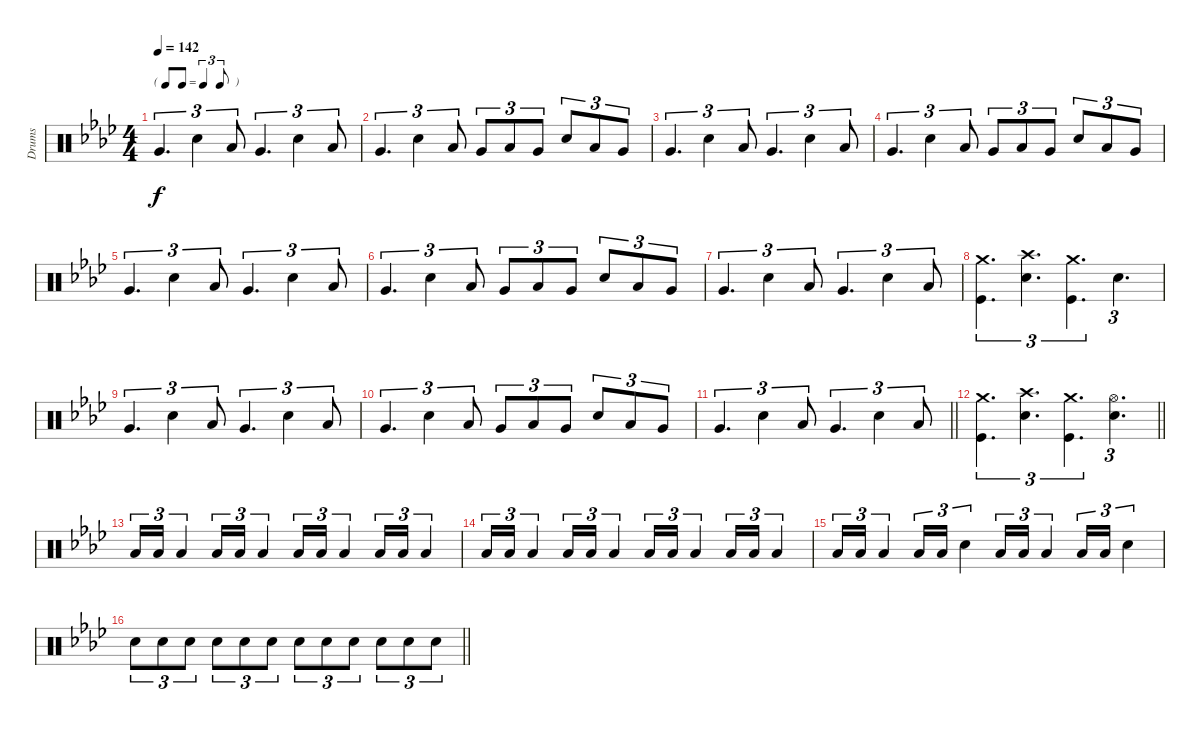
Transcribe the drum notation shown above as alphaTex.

\track ("Drums" "Drums") {instrument percussion}
\staff {score}
\articulation defaults
\ts (4 4)
\tf triplet8th
\tempo 142
\clef neutral
\ks ab "Very Low Tom (hit)".4{d tu (3 2) dy f} "Snare (hit) 2".4{tu (3 2)} "Low Floor Tom (hit)".8{tu (3 2)} "Very Low Tom (hit)".4{d tu (3 2)} "Snare (hit) 2".4{tu (3 2)} "Low Floor Tom (hit)".8{tu (3 2)}
|
"Very Low Tom (hit)".4{d tu (3 2)} "Snare (hit) 2".4{tu (3 2)} "Low Floor Tom (hit)".8{tu (3 2)} "Very Low Tom (hit)".8{tu (3 2)} "Low Floor Tom (hit)".8{tu (3 2)} "Very Low Tom (hit)".8{tu (3 2)} "Snare (hit) 2".8{tu (3 2)} "Low Floor Tom (hit)".8{tu (3 2)} "Very Low Tom (hit)".8{tu (3 2)} |
"Very Low Tom (hit)".4{d tu (3 2)} "Snare (hit) 2".4{tu (3 2)} "Low Floor Tom (hit)".8{tu (3 2)} "Very Low Tom (hit)".4{d tu (3 2)} "Snare (hit) 2".4{tu (3 2)} "Low Floor Tom (hit)".8{tu (3 2)} |
"Very Low Tom (hit)".4{d tu (3 2)} "Snare (hit) 2".4{tu (3 2)} "Low Floor Tom (hit)".8{tu (3 2)} "Very Low Tom (hit)".8{tu (3 2)} "Low Floor Tom (hit)".8{tu (3 2)} "Very Low Tom (hit)".8{tu (3 2)} "Snare (hit) 2".8{tu (3 2)} "Low Floor Tom (hit)".8{tu (3 2)} "Very Low Tom (hit)".8{tu (3 2)} |
"Very Low Tom (hit)".4{d tu (3 2)} "Snare (hit) 2".4{tu (3 2)} "Low Floor Tom (hit)".8{tu (3 2)} "Very Low Tom (hit)".4{d tu (3 2)} "Snare (hit) 2".4{tu (3 2)} "Low Floor Tom (hit)".8{tu (3 2)} |
"Very Low Tom (hit)".4{d tu (3 2)} "Snare (hit) 2".4{tu (3 2)} "Low Floor Tom (hit)".8{tu (3 2)} "Very Low Tom (hit)".8{tu (3 2)} "Low Floor Tom (hit)".8{tu (3 2)} "Very Low Tom (hit)".8{tu (3 2)} "Snare (hit) 2".8{tu (3 2)} "Low Floor Tom (hit)".8{tu (3 2)} "Very Low Tom (hit)".8{tu (3 2)} |
"Very Low Tom (hit)".4{d tu (3 2)} "Snare (hit) 2".4{tu (3 2)} "Low Floor Tom (hit)".8{tu (3 2)} "Very Low Tom (hit)".4{d tu (3 2)} "Snare (hit) 2".4{tu (3 2)} "Low Floor Tom (hit)".8{tu (3 2)} |
("Crash medium (hit)" "Kick (hit)").4{d tu (3 2)} ("Crash high (hit)" "Snare (hit) 2").4{d tu (3 2)} ("Crash medium (hit)" "Kick (hit)").4{d tu (3 2)} "Snare (hit) 2".4{d tu (3 2)} |
"Very Low Tom (hit)".4{d tu (3 2)} "Snare (hit) 2".4{tu (3 2)} "Low Floor Tom (hit)".8{tu (3 2)} "Very Low Tom (hit)".4{d tu (3 2)} "Snare (hit) 2".4{tu (3 2)} "Low Floor Tom (hit)".8{tu (3 2)} |
"Very Low Tom (hit)".4{d tu (3 2)} "Snare (hit) 2".4{tu (3 2)} "Low Floor Tom (hit)".8{tu (3 2)} "Very Low Tom (hit)".8{tu (3 2)} "Low Floor Tom (hit)".8{tu (3 2)} "Very Low Tom (hit)".8{tu (3 2)} "Snare (hit) 2".8{tu (3 2)} "Low Floor Tom (hit)".8{tu (3 2)} "Very Low Tom (hit)".8{tu (3 2)} |
\barLineRight lightlight "Very Low Tom (hit)".4{d tu (3 2)} "Snare (hit) 2".4{tu (3 2)} "Low Floor Tom (hit)".8{tu (3 2)} "Very Low Tom (hit)".4{d tu (3 2)} "Snare (hit) 2".4{tu (3 2)} "Low Floor Tom (hit)".8{tu (3 2)}
|
\barLineRight lightlight
("Crash medium (hit)" "Kick (hit)").4{d tu (3 2)} ("Crash high (hit)" "Snare (hit) 2").4{d tu (3 2)} ("Crash medium (hit)" "Kick (hit)").4{d tu (3 2)} ("Hi-Hat (open)" "Snare (hit) 2").4{d tu (3 2)} |
"Low Floor Tom (hit)".16{tu (3 2)} "Low Floor Tom (hit)".16{tu (3 2)} "Low Floor Tom (hit)".4{tu (3 2)} "Low Floor Tom (hit)".16{tu (3 2)} "Low Floor Tom (hit)".16{tu (3 2)} "Low Floor Tom (hit)".4{tu (3 2)} "Low Floor Tom (hit)".16{tu (3 2)} "Low Floor Tom (hit)".16{tu (3 2)} "Low Floor Tom (hit)".4{tu (3 2)} "Low Floor Tom (hit)".16{tu (3 2)} "Low Floor Tom (hit)".16{tu (3 2)} "Low Floor Tom (hit)".4{tu (3 2)} |
"Low Floor Tom (hit)".16{tu (3 2)} "Low Floor Tom (hit)".16{tu (3 2)} "Low Floor Tom (hit)".4{tu (3 2)} "Low Floor Tom (hit)".16{tu (3 2)} "Low Floor Tom (hit)".16{tu (3 2)} "Low Floor Tom (hit)".4{tu (3 2)} "Low Floor Tom (hit)".16{tu (3 2)} "Low Floor Tom (hit)".16{tu (3 2)} "Low Floor Tom (hit)".4{tu (3 2)} "Low Floor Tom (hit)".16{tu (3 2)} "Low Floor Tom (hit)".16{tu (3 2)} "Low Floor Tom (hit)".4{tu (3 2)} |
"Low Floor Tom (hit)".16{tu (3 2)} "Low Floor Tom (hit)".16{tu (3 2)} "Low Floor Tom (hit)".4{tu (3 2)} "Low Floor Tom (hit)".16{tu (3 2)} "Low Floor Tom (hit)".16{tu (3 2)} "Snare (hit) 2".4{tu (3 2)} "Low Floor Tom (hit)".16{tu (3 2)} "Low Floor Tom (hit)".16{tu (3 2)} "Low Floor Tom (hit)".4{tu (3 2)} "Low Floor Tom (hit)".16{tu (3 2)} "Low Floor Tom (hit)".16{tu (3 2)} "Snare (hit) 2".4{tu (3 2)} |
\barLineRight lightlight "Snare (hit) 2".8{tu (3 2)} "Snare (hit) 2".8{tu (3 2)} "Snare (hit) 2".8{tu (3 2)} "Snare (hit) 2".8{tu (3 2)} "Snare (hit) 2".8{tu (3 2)} "Snare (hit) 2".8{tu (3 2)} "Snare (hit) 2".8{tu (3 2)} "Snare (hit) 2".8{tu (3 2)} "Snare (hit) 2".8{tu (3 2)} "Snare (hit) 2".8{tu (3 2)} "Snare (hit) 2".8{tu (3 2)} "Snare (hit) 2".8{tu (3 2)}
